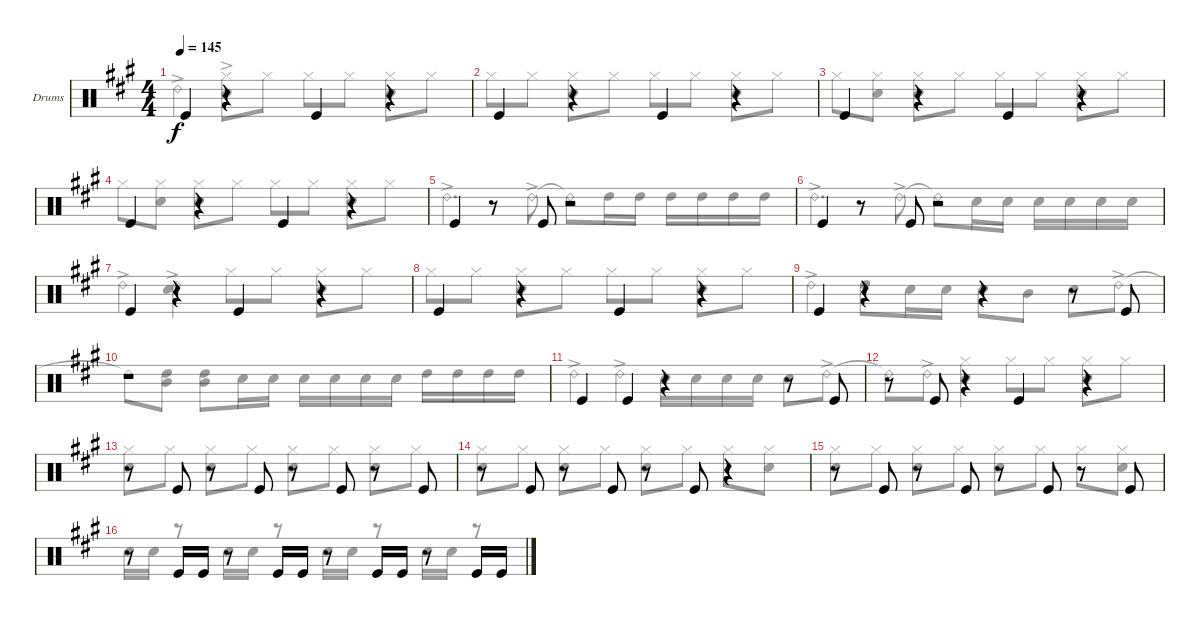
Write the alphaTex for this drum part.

\bracketExtendMode groupsimilarinstruments
\firstSystemTrackNameOrientation horizontal
\otherSystemsTrackNameOrientation horizontal
\track ("Drumkit" "Drums") {instrument percussion}
\staff {score}
\articulation defaults
\voice
\ts (4 4)
\tempo 145
\clef neutral
\scale
1.05801
\ks a "Kick (hit)".4{dy f}
r.4 "Kick (hit)".4 r.4 |
\scale
0.941992 "Kick (hit)".4 r.4 "Kick (hit)".4 r.4 |
\scale
1.05801 "Kick (hit)".4 r.4 "Kick (hit)".4 r.4 |
\scale
0.941992 "Kick (hit)".4 r.4 "Kick (hit)".4 r.4 |
\scale
1.05801 "Kick (hit)".4 r.8 "Kick (hit)".8 r.2 |
\scale
0.941992 "Kick (hit)".4 r.8 "Kick (hit)".8 r.2 |
\scale
1.05801 "Kick (hit)".4 r.4 "Kick (hit)".4 r.4 |
\scale
0.941992 "Kick (hit)".4 r.4 "Kick (hit)".4 r.4 |
\scale
1.05801 "Kick (hit)".4 r.4 r.4 r.8 "Kick (hit)".8 |
\scale
0.941992 r.1 |
\scale
1.05801 "Kick (hit)".4 "Kick (hit)".4 r.4 r.8 "Kick (hit)".8 |
\scale
0.941992 r.8 "Kick (hit)".8 r.4 "Kick (hit)".4 r.4 |
\scale
1.05801 r.8 "Kick (hit)".8 r.8 "Kick (hit)".8 r.8 "Kick (hit)".8 r.8 "Kick (hit)".8 |
\scale
0.941992 r.8 "Kick (hit)".8 r.8 "Kick (hit)".8 r.8 "Kick (hit)".8 r.4 |
\scale
1.05801 r.8 "Kick (hit)".8 r.8 "Kick (hit)".8 r.8 "Kick (hit)".8 r.8 "Kick (hit)".8 |
\scale
0.941992 r.8 "Kick (hit)".16 "Kick (hit)".16 r.8 "Kick (hit)".16 "Kick (hit)".16 r.8 "Kick (hit)".16 "Kick (hit)".16 r.8 "Kick (hit)".16 "Kick (hit)".16
\voice
\clef neutral
\ottava regular
\simile none
\scale
1.05801
\ks a "Ride (bell) 2"{ac}.4{dy f}
("Snare (hit) 2"{ac} "Hi-Hat (closed)").8 "Hi-Hat (closed)".8 "Hi-Hat (closed)".8 "Hi-Hat (closed)".8 ("Hi-Hat (closed)" "Snare (hit) 2").8 "Hi-Hat (closed)".8 |
\scale
0.941992 "Hi-Hat (closed)".8 "Hi-Hat (closed)".8 ("Hi-Hat (closed)" "Snare (hit) 2").8 "Hi-Hat (closed)".8 "Hi-Hat (closed)".8 "Hi-Hat (closed)".8 ("Hi-Hat (closed)" "Snare (hit) 2").8 "Hi-Hat (closed)".8 |
\scale
1.05801 "Hi-Hat (closed)".8 ("Hi-Hat (closed)" "Snare (hit) 2").8 ("Hi-Hat (closed)" "Snare (hit) 2").8 "Hi-Hat (closed)".8 "Hi-Hat (closed)".8 "Hi-Hat (closed)".8 ("Hi-Hat (closed)" "Snare (hit) 2").8 "Hi-Hat (closed)".8 |
\scale
0.941992 "Hi-Hat (closed)".8 ("Hi-Hat (closed)" "Snare (hit) 2").8 ("Hi-Hat (closed)" "Snare (hit) 2").8 "Hi-Hat (closed)".8 "Hi-Hat (closed)".8 "Hi-Hat (closed)".8 ("Hi-Hat (closed)" "Snare (hit) 2").8 "Hi-Hat (closed)".8 |
\scale
1.05801 "Ride (bell) 2"{ac}.4{d} "Ride (bell) 2"{ac}.8 "Ride (bell) 2"{t}.8 "High Tom (hit)".16 "High Tom (hit)".16 "High Tom (hit)".16 "High Tom (hit)".16 "High Tom (hit)".16 "High Tom (hit)".16 |
\scale
0.941992 "Ride (bell) 2"{ac}.4{d} "Ride (bell) 2"{ac}.8 "Ride (bell) 2"{t}.8 "Snare (hit) 2".16 "Snare (hit) 2".16 "Snare (hit) 2".16 "Snare (hit) 2".16 "Snare (hit) 2".16 "Snare (hit) 2".16 |
\scale
1.05801 "Ride (bell) 2"{ac}.4 ("Ride (bell) 2"{ac} "Snare (hit) 2").4 "Hi-Hat (closed)".8 "Hi-Hat (closed)".8 ("Hi-Hat (closed)" "Snare (hit) 2").8 "Hi-Hat (closed)".8 |
\scale
0.941992 "Hi-Hat (closed)".8 "Hi-Hat (closed)".8 ("Hi-Hat (closed)" "Snare (hit) 2").8 "Hi-Hat (closed)".8 "Hi-Hat (closed)".8 "Hi-Hat (closed)".8 ("Hi-Hat (closed)" "Snare (hit) 2").8 "Hi-Hat (closed)".8 |
\scale
1.05801 "Ride (bell) 2"{ac}.4 "High Tom (hit)".8 "Snare (hit) 2".16 "Snare (hit) 2".16 "Snare (hit) 2".8 "Mid Tom (hit)".8 "Snare (hit) 2".8 "Ride (bell) 2"{ac}.8 |
\scale
0.941992 "Ride (bell) 2"{t}.8 ("High Tom (hit)" "Mid Tom (hit)").8 ("High Tom (hit)" "Mid Tom (hit)").8 "Snare (hit) 2".16 "Snare (hit) 2".16 "Snare (hit) 2".16 "Snare (hit) 2".16 "Snare (hit) 2".16 "Snare (hit) 2".16 "High Tom (hit)".16 "High Tom (hit)".16 "High Tom (hit)".16 "High Tom (hit)".16 |
\scale
1.05801 "Ride (bell) 2"{ac}.4 "Ride (bell) 2"{ac}.4 "Snare (hit) 2".16 "Snare (hit) 2".16 "Snare (hit) 2".16 "Snare (hit) 2".16 "Snare (hit) 2".8 "Ride (bell) 2"{ac}.8 |
\scale
0.941992 "Ride (bell) 2"{t}.8 "Ride (bell) 2"{ac}.8 ("Hi-Hat (closed)" "Snare (hit) 2").4 "Hi-Hat (closed)".8 "Hi-Hat (closed)".8 ("Hi-Hat (closed)" "Snare (hit) 2").8 "Hi-Hat (closed)".8 |
\scale
1.05801 ("Hi-Hat (closed)" "Snare (hit) 2").8 "Hi-Hat (closed)".8 ("Hi-Hat (closed)" "Snare (hit) 2").8 "Hi-Hat (closed)".8 ("Hi-Hat (closed)" "Snare (hit) 2").8 "Hi-Hat (closed)".8 ("Hi-Hat (closed)" "Snare (hit) 2").8 "Hi-Hat (closed)".8 |
\scale
0.941992 ("Hi-Hat (closed)" "Snare (hit) 2").8 "Hi-Hat (closed)".8 ("Hi-Hat (closed)" "Snare (hit) 2").8 "Hi-Hat (closed)".8 ("Hi-Hat (closed)" "Snare (hit) 2").8 "Hi-Hat (closed)".8 "Hi-Hat (closed)".8 ("Hi-Hat (closed)" "Snare (hit) 2").8 |
\scale
1.05801 ("Hi-Hat (closed)" "Snare (hit) 2").8 "Hi-Hat (closed)".8 ("Hi-Hat (closed)" "Snare (hit) 2").8 "Hi-Hat (closed)".8 ("Hi-Hat (closed)" "Snare (hit) 2").8 "Hi-Hat (closed)".8 "Hi-Hat (closed)".8 ("Hi-Hat (closed)" "Snare (hit) 2").8 |
\scale
0.941992 "Snare (hit) 2".16 "Snare (hit) 2".16 r.8 "Snare (hit) 2".16 "Snare (hit) 2".16 r.8 "Snare (hit) 2".16 "Snare (hit) 2".16 r.8 "Snare (hit) 2".16 "Snare (hit) 2".16 r.8
